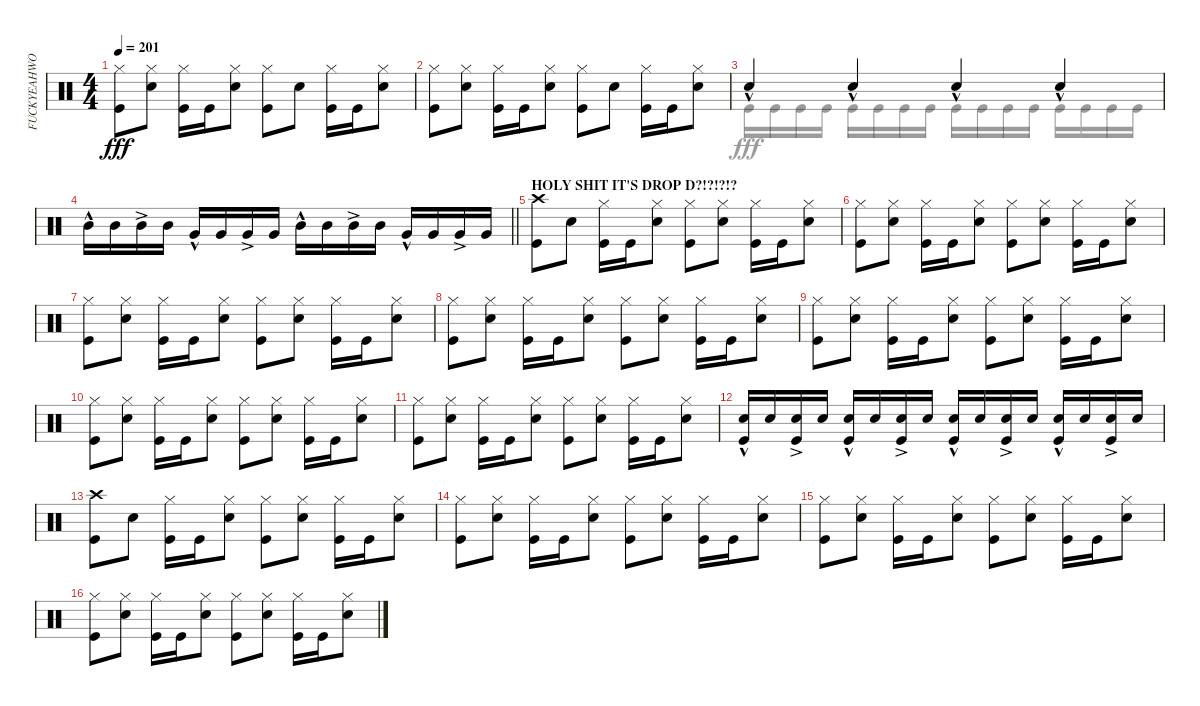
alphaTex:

\track ("FUCKYEAHWOOTDAVEMACKINTOSH(Percussion)" "FUCKYEAHWO") {instrument percussion}
\staff {score}
\articulation defaults
\voice
\ts (4 4)
\tempo 201
\clef neutral
\ks c
("Kick (hit)" "Hi-Hat (closed)").8{dy fff} ("Snare (hit) 2" "Hi-Hat (closed)").8 ("Kick (hit)" "Hi-Hat (closed)").16 "Kick (hit)".16 ("Snare (hit) 2" "Hi-Hat (closed)").8 ("Kick (hit)" "Hi-Hat (closed)").8 "Snare (hit) 2".8 ("Kick (hit)" "Hi-Hat (closed)").16 "Kick (hit)".16 ("Snare (hit) 2" "Hi-Hat (closed)").8 |
("Kick (hit)" "Hi-Hat (closed)").8 ("Snare (hit) 2" "Hi-Hat (closed)").8 ("Kick (hit)" "Hi-Hat (closed)").16 "Kick (hit)".16 ("Snare (hit) 2" "Hi-Hat (closed)").8 ("Kick (hit)" "Hi-Hat (closed)").8 "Snare (hit) 2".8 ("Kick (hit)" "Hi-Hat (closed)").16 "Kick (hit)".16 ("Snare (hit) 2" "Hi-Hat (closed)").8 |
"Snare (hit) 2"{hac}.4 "Snare (hit) 2"{hac}.4 "Snare (hit) 2"{hac}.4 "Snare (hit) 2"{hac}.4 |
\barLineRight lightlight "Mid Tom (hit)"{hac}.16 "Mid Tom (hit)".16 "Mid Tom (hit)"{ac}.16 "Mid Tom (hit)".16 "Very Low Tom (hit)"{hac}.16 "Very Low Tom (hit)".16 "Very Low Tom (hit)"{ac}.16 "Very Low Tom (hit)".16 "Mid Tom (hit)"{hac}.16 "Mid Tom (hit)".16 "Mid Tom (hit)"{ac}.16 "Mid Tom (hit)".16 "Very Low Tom (hit)"{hac}.16 "Very Low Tom (hit)".16 "Very Low Tom (hit)"{ac}.16 "Very Low Tom (hit)".16
|
\section ("" "HOLY SHIT IT'S DROP D?!?!?!?")
("Kick (hit)" "Crash high (hit)").8 "Snare (hit) 2".8 ("Kick (hit)" "Hi-Hat (closed)").16 "Kick (hit)".16 ("Snare (hit) 2" "Hi-Hat (closed)").8 ("Kick (hit)" "Hi-Hat (closed)").8 ("Snare (hit) 2" "Hi-Hat (closed)").8 ("Kick (hit)" "Hi-Hat (closed)").16 "Kick (hit)".16 ("Snare (hit) 2" "Hi-Hat (closed)").8 |
("Kick (hit)" "Hi-Hat (closed)").8 ("Snare (hit) 2" "Hi-Hat (closed)").8 ("Kick (hit)" "Hi-Hat (closed)").16 "Kick (hit)".16 ("Snare (hit) 2" "Hi-Hat (closed)").8 ("Kick (hit)" "Hi-Hat (closed)").8 ("Snare (hit) 2" "Hi-Hat (closed)").8 ("Kick (hit)" "Hi-Hat (closed)").16 "Kick (hit)".16 ("Snare (hit) 2" "Hi-Hat (closed)").8 |
("Kick (hit)" "Hi-Hat (closed)").8 ("Snare (hit) 2" "Hi-Hat (closed)").8 ("Kick (hit)" "Hi-Hat (closed)").16 "Kick (hit)".16 ("Snare (hit) 2" "Hi-Hat (closed)").8 ("Kick (hit)" "Hi-Hat (closed)").8 ("Snare (hit) 2" "Hi-Hat (closed)").8 ("Kick (hit)" "Hi-Hat (closed)").16 "Kick (hit)".16 ("Snare (hit) 2" "Hi-Hat (closed)").8 |
("Kick (hit)" "Hi-Hat (closed)").8 ("Snare (hit) 2" "Hi-Hat (closed)").8 ("Kick (hit)" "Hi-Hat (closed)").16 "Kick (hit)".16 ("Snare (hit) 2" "Hi-Hat (closed)").8 ("Kick (hit)" "Hi-Hat (closed)").8 ("Snare (hit) 2" "Hi-Hat (closed)").8 ("Kick (hit)" "Hi-Hat (closed)").16 "Kick (hit)".16 ("Snare (hit) 2" "Hi-Hat (closed)").8 |
("Kick (hit)" "Hi-Hat (closed)").8 ("Snare (hit) 2" "Hi-Hat (closed)").8 ("Kick (hit)" "Hi-Hat (closed)").16 "Kick (hit)".16 ("Snare (hit) 2" "Hi-Hat (closed)").8 ("Kick (hit)" "Hi-Hat (closed)").8 ("Snare (hit) 2" "Hi-Hat (closed)").8 ("Kick (hit)" "Hi-Hat (closed)").16 "Kick (hit)".16 ("Snare (hit) 2" "Hi-Hat (closed)").8 |
("Kick (hit)" "Hi-Hat (closed)").8 ("Snare (hit) 2" "Hi-Hat (closed)").8 ("Kick (hit)" "Hi-Hat (closed)").16 "Kick (hit)".16 ("Snare (hit) 2" "Hi-Hat (closed)").8 ("Kick (hit)" "Hi-Hat (closed)").8 ("Snare (hit) 2" "Hi-Hat (closed)").8 ("Kick (hit)" "Hi-Hat (closed)").16 "Kick (hit)".16 ("Snare (hit) 2" "Hi-Hat (closed)").8 |
("Kick (hit)" "Hi-Hat (closed)").8 ("Snare (hit) 2" "Hi-Hat (closed)").8 ("Kick (hit)" "Hi-Hat (closed)").16 "Kick (hit)".16 ("Snare (hit) 2" "Hi-Hat (closed)").8 ("Kick (hit)" "Hi-Hat (closed)").8 ("Snare (hit) 2" "Hi-Hat (closed)").8 ("Kick (hit)" "Hi-Hat (closed)").16 "Kick (hit)".16 ("Snare (hit) 2" "Hi-Hat (closed)").8 |
("Snare (hit) 2"{hac} "Kick (hit)").16 "Snare (hit) 2".16 ("Snare (hit) 2"{ac} "Kick (hit)").16 "Snare (hit) 2".16 ("Kick (hit)" "Snare (hit) 2"{hac}).16 "Snare (hit) 2".16 ("Kick (hit)" "Snare (hit) 2"{ac}).16 "Snare (hit) 2".16 ("Snare (hit) 2"{hac} "Kick (hit)").16 "Snare (hit) 2".16 ("Snare (hit) 2"{ac} "Kick (hit)").16 "Snare (hit) 2".16 ("Snare (hit) 2"{hac} "Kick (hit)").16 "Snare (hit) 2".16 ("Snare (hit) 2"{ac} "Kick (hit)").16 "Snare (hit) 2".16 |
("Kick (hit)" "Crash high (hit)").8 "Snare (hit) 2".8 ("Kick (hit)" "Hi-Hat (closed)").16 "Kick (hit)".16 ("Snare (hit) 2" "Hi-Hat (closed)").8 ("Kick (hit)" "Hi-Hat (closed)").8 ("Snare (hit) 2" "Hi-Hat (closed)").8 ("Kick (hit)" "Hi-Hat (closed)").16 "Kick (hit)".16 ("Snare (hit) 2" "Hi-Hat (closed)").8 |
("Kick (hit)" "Hi-Hat (closed)").8 ("Snare (hit) 2" "Hi-Hat (closed)").8 ("Kick (hit)" "Hi-Hat (closed)").16 "Kick (hit)".16 ("Snare (hit) 2" "Hi-Hat (closed)").8 ("Kick (hit)" "Hi-Hat (closed)").8 ("Snare (hit) 2" "Hi-Hat (closed)").8 ("Kick (hit)" "Hi-Hat (closed)").16 "Kick (hit)".16 ("Snare (hit) 2" "Hi-Hat (closed)").8 |
("Kick (hit)" "Hi-Hat (closed)").8 ("Snare (hit) 2" "Hi-Hat (closed)").8 ("Kick (hit)" "Hi-Hat (closed)").16 "Kick (hit)".16 ("Snare (hit) 2" "Hi-Hat (closed)").8 ("Kick (hit)" "Hi-Hat (closed)").8 ("Snare (hit) 2" "Hi-Hat (closed)").8 ("Kick (hit)" "Hi-Hat (closed)").16 "Kick (hit)".16 ("Snare (hit) 2" "Hi-Hat (closed)").8 |
("Kick (hit)" "Hi-Hat (closed)").8 ("Snare (hit) 2" "Hi-Hat (closed)").8 ("Kick (hit)" "Hi-Hat (closed)").16 "Kick (hit)".16 ("Snare (hit) 2" "Hi-Hat (closed)").8 ("Kick (hit)" "Hi-Hat (closed)").8 ("Snare (hit) 2" "Hi-Hat (closed)").8 ("Kick (hit)" "Hi-Hat (closed)").16 "Kick (hit)".16 ("Snare (hit) 2" "Hi-Hat (closed)").8
\voice
\clef neutral
\ottava regular
\simile none
\ks c
|
|
"Kick (hit)".16 "Kick (hit)".16 "Kick (hit)".16 "Kick (hit)".16 "Kick (hit)".16 "Kick (hit)".16 "Kick (hit)".16 "Kick (hit)".16 "Kick (hit)".16 "Kick (hit)".16 "Kick (hit)".16 "Kick (hit)".16 "Kick (hit)".16 "Kick (hit)".16 "Kick (hit)".16 "Kick (hit)".16 |
\barLineRight lightlight
|
|
|
|
|
|
|
|
|
|
|
|
